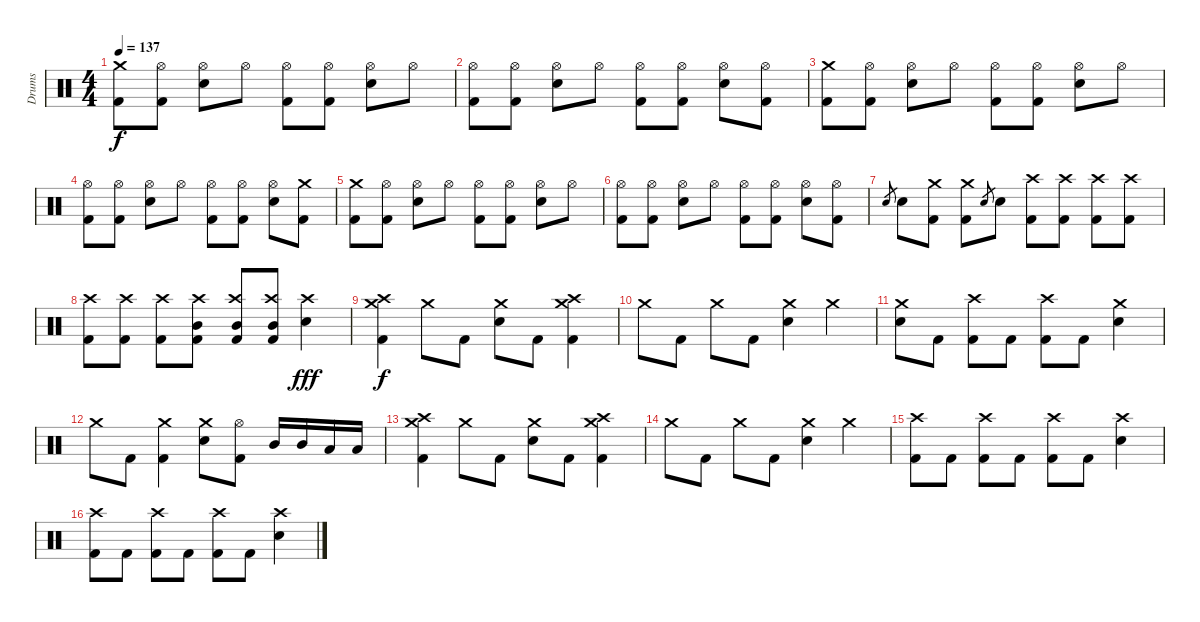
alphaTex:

\track ("Drums" "Drums") {instrument percussion}
\staff {score}
\articulation defaults
\ts (4 4)
\tempo 137
\clef neutral
\ks c
("Crash medium (hit)" "Kick (hit) 2").8{dy f} ("Hi-Hat (open)" "Kick (hit) 2").8 ("Hi-Hat (open)" "Electric Snare (hit)").8 "Hi-Hat (open)".8 ("Hi-Hat (open)" "Kick (hit) 2").8 ("Hi-Hat (open)" "Kick (hit) 2").8 ("Hi-Hat (open)" "Electric Snare (hit)").8 "Hi-Hat (open)".8 |
("Hi-Hat (open)" "Kick (hit) 2").8 ("Hi-Hat (open)" "Kick (hit) 2").8 ("Hi-Hat (open)" "Electric Snare (hit)").8 "Hi-Hat (open)".8 ("Hi-Hat (open)" "Kick (hit) 2").8 ("Hi-Hat (open)" "Kick (hit) 2").8 ("Hi-Hat (open)" "Electric Snare (hit)").8 ("Hi-Hat (open)" "Kick (hit) 2").8 |
("Crash medium (hit)" "Kick (hit) 2").8 ("Hi-Hat (open)" "Kick (hit) 2").8 ("Hi-Hat (open)" "Electric Snare (hit)").8 "Hi-Hat (open)".8 ("Hi-Hat (open)" "Kick (hit) 2").8 ("Hi-Hat (open)" "Kick (hit) 2").8 ("Hi-Hat (open)" "Electric Snare (hit)").8 "Hi-Hat (open)".8 |
("Hi-Hat (open)" "Kick (hit) 2").8 ("Hi-Hat (open)" "Kick (hit) 2").8 ("Hi-Hat (open)" "Electric Snare (hit)").8 "Hi-Hat (open)".8 ("Hi-Hat (open)" "Kick (hit) 2").8 ("Hi-Hat (open)" "Kick (hit) 2").8 ("Hi-Hat (open)" "Electric Snare (hit)").8 ("Crash medium (hit)" "Kick (hit) 2").8 |
("Crash medium (hit)" "Kick (hit) 2").8 ("Hi-Hat (open)" "Kick (hit) 2").8 ("Hi-Hat (open)" "Electric Snare (hit)").8 "Hi-Hat (open)".8 ("Hi-Hat (open)" "Kick (hit) 2").8 ("Hi-Hat (open)" "Kick (hit) 2").8 ("Hi-Hat (open)" "Electric Snare (hit)").8 "Hi-Hat (open)".8 |
("Hi-Hat (open)" "Kick (hit) 2").8 ("Hi-Hat (open)" "Kick (hit) 2").8 ("Hi-Hat (open)" "Electric Snare (hit)").8 "Hi-Hat (open)".8 ("Hi-Hat (open)" "Kick (hit) 2").8 ("Hi-Hat (open)" "Kick (hit) 2").8 ("Hi-Hat (open)" "Electric Snare (hit)").8 ("Hi-Hat (open)" "Kick (hit) 2").8 |
"Electric Snare (hit)".8{gr} "Electric Snare (hit)".8 ("Crash medium (hit)" "Kick (hit) 2").8 ("Crash medium (hit)" "Kick (hit) 2").8 "Electric Snare (hit)".8{gr} "Electric Snare (hit)".8 ("Crash high (hit)" "Kick (hit) 2").8 ("Crash high (hit)" "Kick (hit) 2").8 ("Crash high (hit)" "Kick (hit) 2").8 ("Crash high (hit)" "Kick (hit) 2").8 |
("Crash high (hit)" "Kick (hit) 2").8 ("Crash high (hit)" "Kick (hit) 2").8 ("Crash high (hit)" "Kick (hit) 2").8 ("Crash high (hit)" "Mid Tom (hit)" "Kick (hit) 2").8 ("Crash high (hit)" "Mid Tom (hit)" "Kick (hit) 2").8 ("Crash high (hit)" "Mid Tom (hit)" "Kick (hit) 2").8 ("Crash high (hit)" "Electric Snare (hit)").4{dy fff} |
("Crash medium (hit)" "Crash high (hit)" "Kick (hit) 2").4{dy f} "Crash medium (hit)".8 "Kick (hit) 2".8 ("Crash medium (hit)" "Electric Snare (hit)").8 "Kick (hit) 2".8 ("Crash medium (hit)" "Crash high (hit)" "Kick (hit) 2").4 |
"Crash medium (hit)".8 "Kick (hit) 2".8 "Crash medium (hit)".8 "Kick (hit) 2".8 ("Crash medium (hit)" "Electric Snare (hit)").4 "Crash medium (hit)".4 |
("Crash medium (hit)" "Electric Snare (hit)").8 "Kick (hit) 2".8 ("Crash high (hit)" "Kick (hit) 2").8 "Kick (hit) 2".8 ("Crash high (hit)" "Kick (hit) 2").8 "Kick (hit) 2".8 ("Crash medium (hit)" "Electric Snare (hit)").4 |
"Crash medium (hit)".8 "Kick (hit) 2".8 ("Crash medium (hit)" "Kick (hit) 2").4 ("Crash medium (hit)" "Electric Snare (hit)").8 ("Hi-Hat (open)" "Kick (hit) 2").8 "Mid Tom (hit)".16 "Mid Tom (hit)".16 "Low Tom (hit)".16 "Low Tom (hit)".16 |
("Crash medium (hit)" "Crash high (hit)" "Kick (hit) 2").4 "Crash medium (hit)".8 "Kick (hit) 2".8 ("Crash medium (hit)" "Electric Snare (hit)").8 "Kick (hit) 2".8 ("Crash medium (hit)" "Crash high (hit)" "Kick (hit) 2").4 |
"Crash medium (hit)".8 "Kick (hit) 2".8 "Crash medium (hit)".8 "Kick (hit) 2".8 ("Crash medium (hit)" "Electric Snare (hit)").4 "Crash medium (hit)".4 |
("Crash high (hit)" "Kick (hit) 2").8 "Kick (hit) 2".8 ("Crash high (hit)" "Kick (hit) 2").8 "Kick (hit) 2".8 ("Crash high (hit)" "Kick (hit) 2").8 "Kick (hit) 2".8 ("Crash high (hit)" "Electric Snare (hit)").4 |
("Crash high (hit)" "Kick (hit) 2").8 "Kick (hit) 2".8 ("Crash high (hit)" "Kick (hit) 2").8 "Kick (hit) 2".8 ("Crash high (hit)" "Kick (hit) 2").8 "Kick (hit) 2".8 ("Crash high (hit)" "Electric Snare (hit)").4
